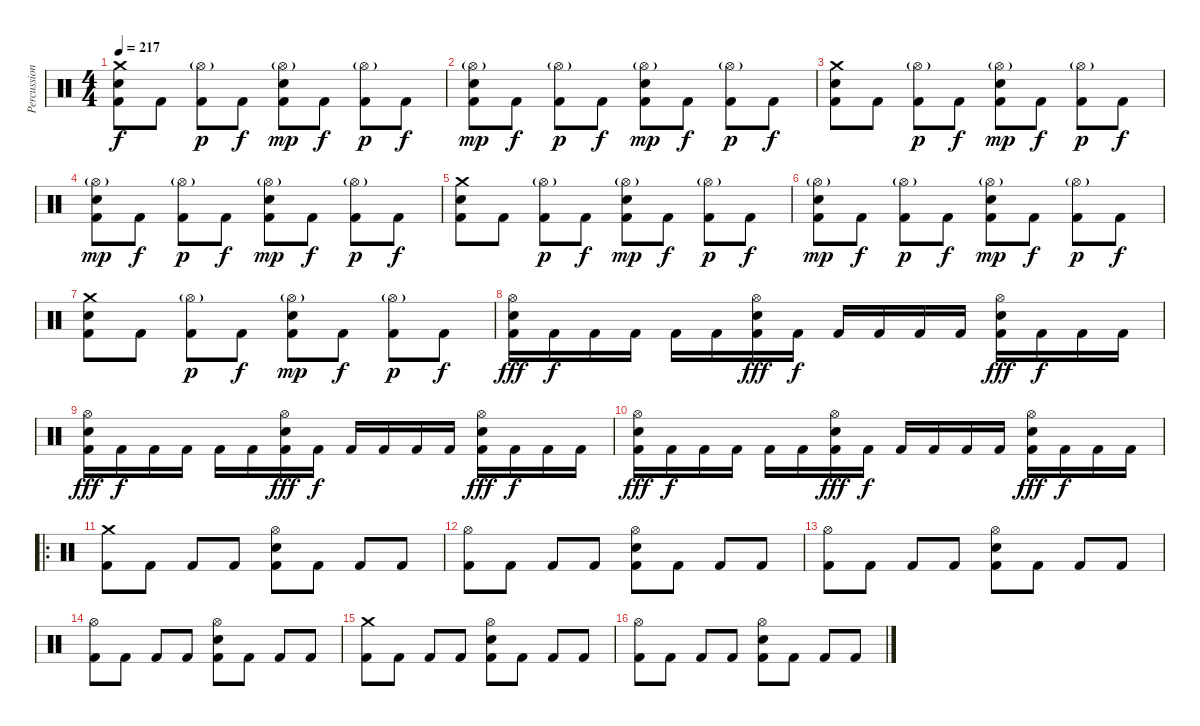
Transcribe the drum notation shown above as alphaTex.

\track ("Percussion" "Percussion") {instrument percussion}
\staff {score}
\articulation defaults
\ts (4 4)
\tempo 217
\clef neutral
\ks c
("Crash medium (hit)" "Electric Snare (hit)" "Kick (hit) 2").8{dy f} "Kick (hit) 2".8 ("Hi-Hat (open)"{g} "Kick (hit) 2").8{dy p} "Kick (hit) 2".8{dy f} ("Hi-Hat (open)"{g} "Electric Snare (hit)" "Kick (hit) 2").8{dy mp} "Kick (hit) 2".8{dy f} ("Hi-Hat (open)"{g} "Kick (hit) 2").8{dy p} "Kick (hit) 2".8{dy f} |
("Hi-Hat (open)"{g} "Electric Snare (hit)" "Kick (hit) 2").8{dy mp} "Kick (hit) 2".8{dy f} ("Hi-Hat (open)"{g} "Kick (hit) 2").8{dy p} "Kick (hit) 2".8{dy f} ("Hi-Hat (open)"{g} "Electric Snare (hit)" "Kick (hit) 2").8{dy mp} "Kick (hit) 2".8{dy f} ("Hi-Hat (open)"{g} "Kick (hit) 2").8{dy p} "Kick (hit) 2".8{dy f} |
("Crash medium (hit)" "Electric Snare (hit)" "Kick (hit) 2").8 "Kick (hit) 2".8 ("Hi-Hat (open)"{g} "Kick (hit) 2").8{dy p} "Kick (hit) 2".8{dy f} ("Hi-Hat (open)"{g} "Electric Snare (hit)" "Kick (hit) 2").8{dy mp} "Kick (hit) 2".8{dy f} ("Hi-Hat (open)"{g} "Kick (hit) 2").8{dy p} "Kick (hit) 2".8{dy f} |
("Hi-Hat (open)"{g} "Electric Snare (hit)" "Kick (hit) 2").8{dy mp} "Kick (hit) 2".8{dy f} ("Hi-Hat (open)"{g} "Kick (hit) 2").8{dy p} "Kick (hit) 2".8{dy f} ("Hi-Hat (open)"{g} "Electric Snare (hit)" "Kick (hit) 2").8{dy mp} "Kick (hit) 2".8{dy f} ("Hi-Hat (open)"{g} "Kick (hit) 2").8{dy p} "Kick (hit) 2".8{dy f} |
("Crash medium (hit)" "Electric Snare (hit)" "Kick (hit) 2").8 "Kick (hit) 2".8 ("Hi-Hat (open)"{g} "Kick (hit) 2").8{dy p} "Kick (hit) 2".8{dy f} ("Hi-Hat (open)"{g} "Electric Snare (hit)" "Kick (hit) 2").8{dy mp} "Kick (hit) 2".8{dy f} ("Hi-Hat (open)"{g} "Kick (hit) 2").8{dy p} "Kick (hit) 2".8{dy f} |
("Hi-Hat (open)"{g} "Electric Snare (hit)" "Kick (hit) 2").8{dy mp} "Kick (hit) 2".8{dy f} ("Hi-Hat (open)"{g} "Kick (hit) 2").8{dy p} "Kick (hit) 2".8{dy f} ("Hi-Hat (open)"{g} "Electric Snare (hit)" "Kick (hit) 2").8{dy mp} "Kick (hit) 2".8{dy f} ("Hi-Hat (open)"{g} "Kick (hit) 2").8{dy p} "Kick (hit) 2".8{dy f} |
("Crash medium (hit)" "Electric Snare (hit)" "Kick (hit) 2").8 "Kick (hit) 2".8 ("Hi-Hat (open)"{g} "Kick (hit) 2").8{dy p} "Kick (hit) 2".8{dy f} ("Hi-Hat (open)"{g} "Electric Snare (hit)" "Kick (hit) 2").8{dy mp} "Kick (hit) 2".8{dy f} ("Hi-Hat (open)"{g} "Kick (hit) 2").8{dy p} "Kick (hit) 2".8{dy f} |
("Hi-Hat (open)" "Electric Snare (hit)" "Kick (hit) 2").16{dy fff} "Kick (hit) 2".16{dy f} "Kick (hit) 2".16 "Kick (hit) 2".16 "Kick (hit) 2".16 "Kick (hit) 2".16 ("Hi-Hat (open)" "Electric Snare (hit)" "Kick (hit) 2").16{dy fff} "Kick (hit) 2".16{dy f} "Kick (hit) 2".16 "Kick (hit) 2".16 "Kick (hit) 2".16 "Kick (hit) 2".16 ("Hi-Hat (open)" "Electric Snare (hit)" "Kick (hit) 2").16{dy fff} "Kick (hit) 2".16{dy f} "Kick (hit) 2".16 "Kick (hit) 2".16 |
("Hi-Hat (open)" "Electric Snare (hit)" "Kick (hit) 2").16{dy fff} "Kick (hit) 2".16{dy f} "Kick (hit) 2".16 "Kick (hit) 2".16 "Kick (hit) 2".16 "Kick (hit) 2".16 ("Hi-Hat (open)" "Electric Snare (hit)" "Kick (hit) 2").16{dy fff} "Kick (hit) 2".16{dy f} "Kick (hit) 2".16 "Kick (hit) 2".16 "Kick (hit) 2".16 "Kick (hit) 2".16 ("Hi-Hat (open)" "Electric Snare (hit)" "Kick (hit) 2").16{dy fff} "Kick (hit) 2".16{dy f} "Kick (hit) 2".16 "Kick (hit) 2".16 |
("Hi-Hat (open)" "Electric Snare (hit)" "Kick (hit) 2").16{dy fff} "Kick (hit) 2".16{dy f} "Kick (hit) 2".16 "Kick (hit) 2".16 "Kick (hit) 2".16 "Kick (hit) 2".16 ("Hi-Hat (open)" "Electric Snare (hit)" "Kick (hit) 2").16{dy fff} "Kick (hit) 2".16{dy f} "Kick (hit) 2".16 "Kick (hit) 2".16 "Kick (hit) 2".16 "Kick (hit) 2".16 ("Hi-Hat (open)" "Electric Snare (hit)" "Kick (hit) 2").16{dy fff} "Kick (hit) 2".16{dy f} "Kick (hit) 2".16 "Kick (hit) 2".16 |
\ro
("Crash medium (hit)" "Kick (hit) 2").8 "Kick (hit) 2".8 "Kick (hit) 2".8 "Kick (hit) 2".8 ("Hi-Hat (open)" "Electric Snare (hit)" "Kick (hit) 2").8 "Kick (hit) 2".8 "Kick (hit) 2".8 "Kick (hit) 2".8 |
("Hi-Hat (open)" "Kick (hit) 2").8 "Kick (hit) 2".8 "Kick (hit) 2".8 "Kick (hit) 2".8 ("Hi-Hat (open)" "Electric Snare (hit)" "Kick (hit) 2").8 "Kick (hit) 2".8 "Kick (hit) 2".8 "Kick (hit) 2".8 |
("Hi-Hat (open)" "Kick (hit) 2").8 "Kick (hit) 2".8 "Kick (hit) 2".8 "Kick (hit) 2".8 ("Hi-Hat (open)" "Electric Snare (hit)" "Kick (hit) 2").8 "Kick (hit) 2".8 "Kick (hit) 2".8 "Kick (hit) 2".8 |
("Hi-Hat (open)" "Kick (hit) 2").8 "Kick (hit) 2".8 "Kick (hit) 2".8 "Kick (hit) 2".8 ("Hi-Hat (open)" "Electric Snare (hit)" "Kick (hit) 2").8 "Kick (hit) 2".8 "Kick (hit) 2".8 "Kick (hit) 2".8 |
("Crash medium (hit)" "Kick (hit) 2").8 "Kick (hit) 2".8 "Kick (hit) 2".8 "Kick (hit) 2".8 ("Hi-Hat (open)" "Electric Snare (hit)" "Kick (hit) 2").8 "Kick (hit) 2".8 "Kick (hit) 2".8 "Kick (hit) 2".8 |
("Hi-Hat (open)" "Kick (hit) 2").8 "Kick (hit) 2".8 "Kick (hit) 2".8 "Kick (hit) 2".8 ("Hi-Hat (open)" "Electric Snare (hit)" "Kick (hit) 2").8 "Kick (hit) 2".8 "Kick (hit) 2".8 "Kick (hit) 2".8
